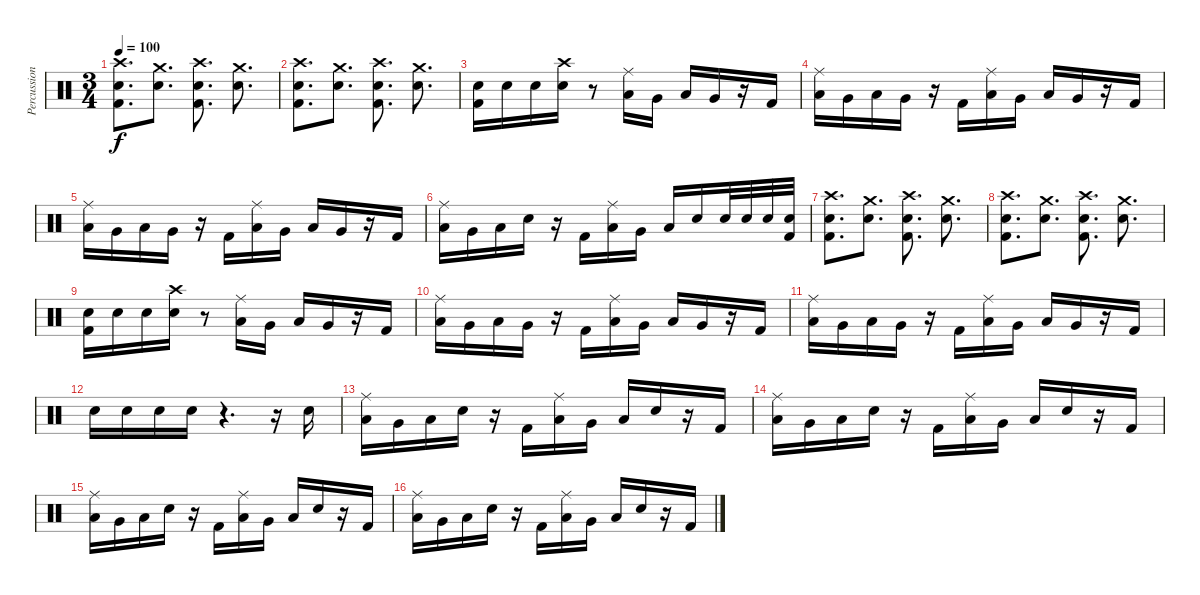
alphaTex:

\track ("Percussion" "Percussion") {instrument percussion}
\staff {score}
\articulation defaults
\ts (3 4)
\tempo 100
\clef neutral
\ks c
("Crash high (hit)" "Snare (hit) 2" "Kick (hit) 2").8{d dy f} ("Crash medium (hit)" "Snare (hit) 2").8{d} ("Crash high (hit)" "Snare (hit) 2" "Kick (hit) 2").8{d} ("Crash medium (hit)" "Snare (hit) 2").8{d} |
("Crash high (hit)" "Snare (hit) 2" "Kick (hit) 2").8{d} ("Crash medium (hit)" "Snare (hit) 2").8{d} ("Crash high (hit)" "Snare (hit) 2" "Kick (hit) 2").8{d} ("Crash medium (hit)" "Snare (hit) 2").8{d} |
("Snare (hit) 2" "Kick (hit) 2").16 "Snare (hit) 2".16 "Snare (hit) 2".16 ("Crash high (hit)" "Snare (hit) 2").16 r.8 ("Ride (middle)" "Low Floor Tom (hit)").16 "Very Low Tom (hit)".16 "Low Floor Tom (hit)".16 "Very Low Tom (hit)".16 r.16 "Kick (hit) 2".16 |
("Ride (middle)" "Low Floor Tom (hit)").16 "Very Low Tom (hit)".16 "Low Floor Tom (hit)".16 "Very Low Tom (hit)".16 r.16 "Kick (hit) 2".16 ("Ride (middle)" "Low Floor Tom (hit)").16 "Very Low Tom (hit)".16 "Low Floor Tom (hit)".16 "Very Low Tom (hit)".16 r.16 "Kick (hit) 2".16 |
("Ride (middle)" "Low Floor Tom (hit)").16 "Very Low Tom (hit)".16 "Low Floor Tom (hit)".16 "Very Low Tom (hit)".16 r.16 "Kick (hit) 2".16 ("Ride (middle)" "Low Floor Tom (hit)").16 "Very Low Tom (hit)".16 "Low Floor Tom (hit)".16 "Very Low Tom (hit)".16 r.16 "Kick (hit) 2".16 |
("Ride (middle)" "Low Floor Tom (hit)").16 "Very Low Tom (hit)".16 "Low Floor Tom (hit)".16 "Snare (hit) 2".16 r.16 "Kick (hit) 2".16 ("Ride (middle)" "Low Floor Tom (hit)").16 "Very Low Tom (hit)".16 "Low Floor Tom (hit)".16 "Snare (hit) 2".16 "Snare (hit) 2".32 "Snare (hit) 2".32 "Snare (hit) 2".32 ("Snare (hit) 2" "Kick (hit) 2").32 |
("Crash high (hit)" "Snare (hit) 2" "Kick (hit) 2").8{d} ("Crash medium (hit)" "Snare (hit) 2").8{d} ("Crash high (hit)" "Snare (hit) 2" "Kick (hit) 2").8{d} ("Crash medium (hit)" "Snare (hit) 2").8{d} |
("Crash high (hit)" "Snare (hit) 2" "Kick (hit) 2").8{d} ("Crash medium (hit)" "Snare (hit) 2").8{d} ("Crash high (hit)" "Snare (hit) 2" "Kick (hit) 2").8{d} ("Crash medium (hit)" "Snare (hit) 2").8{d} |
("Snare (hit) 2" "Kick (hit) 2").16 "Snare (hit) 2".16 "Snare (hit) 2".16 ("Crash high (hit)" "Snare (hit) 2").16 r.8 ("Ride (middle)" "Low Floor Tom (hit)").16 "Very Low Tom (hit)".16 "Low Floor Tom (hit)".16 "Very Low Tom (hit)".16 r.16 "Kick (hit) 2".16 |
("Ride (middle)" "Low Floor Tom (hit)").16 "Very Low Tom (hit)".16 "Low Floor Tom (hit)".16 "Very Low Tom (hit)".16 r.16 "Kick (hit) 2".16 ("Ride (middle)" "Low Floor Tom (hit)").16 "Very Low Tom (hit)".16 "Low Floor Tom (hit)".16 "Very Low Tom (hit)".16 r.16 "Kick (hit) 2".16 |
("Ride (middle)" "Low Floor Tom (hit)").16 "Very Low Tom (hit)".16 "Low Floor Tom (hit)".16 "Very Low Tom (hit)".16 r.16 "Kick (hit) 2".16 ("Ride (middle)" "Low Floor Tom (hit)").16 "Very Low Tom (hit)".16 "Low Floor Tom (hit)".16 "Very Low Tom (hit)".16 r.16 "Kick (hit) 2".16 |
"Snare (hit) 2".16 "Snare (hit) 2".16 "Snare (hit) 2".16 "Snare (hit) 2".16 r.4{d} r.16 "Snare (hit) 2".16 |
("Ride (middle)" "Low Floor Tom (hit)").16 "Very Low Tom (hit)".16 "Low Floor Tom (hit)".16 "Snare (hit) 2".16 r.16 "Kick (hit) 2".16 ("Ride (middle)" "Low Floor Tom (hit)").16 "Very Low Tom (hit)".16 "Low Floor Tom (hit)".16 "Snare (hit) 2".16 r.16 "Kick (hit) 2".16 |
("Ride (middle)" "Low Floor Tom (hit)").16 "Very Low Tom (hit)".16 "Low Floor Tom (hit)".16 "Snare (hit) 2".16 r.16 "Kick (hit) 2".16 ("Ride (middle)" "Low Floor Tom (hit)").16 "Very Low Tom (hit)".16 "Low Floor Tom (hit)".16 "Snare (hit) 2".16 r.16 "Kick (hit) 2".16 |
("Ride (middle)" "Low Floor Tom (hit)").16 "Very Low Tom (hit)".16 "Low Floor Tom (hit)".16 "Snare (hit) 2".16 r.16 "Kick (hit) 2".16 ("Ride (middle)" "Low Floor Tom (hit)").16 "Very Low Tom (hit)".16 "Low Floor Tom (hit)".16 "Snare (hit) 2".16 r.16 "Kick (hit) 2".16 |
("Ride (middle)" "Low Floor Tom (hit)").16 "Very Low Tom (hit)".16 "Low Floor Tom (hit)".16 "Snare (hit) 2".16 r.16 "Kick (hit) 2".16 ("Ride (middle)" "Low Floor Tom (hit)").16 "Very Low Tom (hit)".16 "Low Floor Tom (hit)".16 "Snare (hit) 2".16 r.16 "Kick (hit) 2".16
